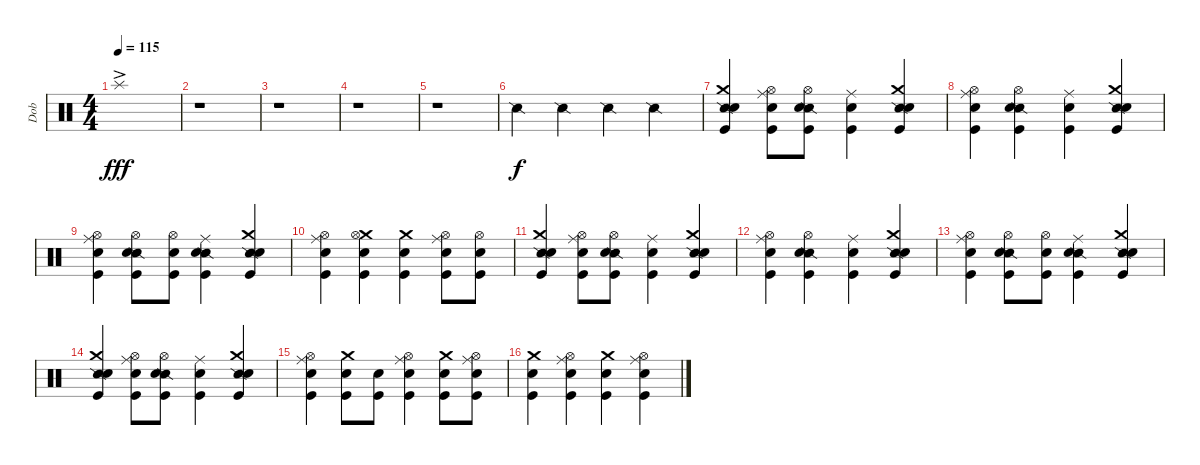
\track ("Dob" "Dob") {instrument percussion}
\staff {score}
\articulation defaults
\ts (4 4)
\tempo 115
\clef neutral
\ks c "Splash (hit)"{ac}.1{dy fff}
|
r.1 |
r.1 |
r.1 |
r.1 |
"Snare (side stick) 2".4{dy f} "Snare (side stick) 2".4 "Snare (side stick) 2".4 "Snare (side stick) 2".4 |
("Crash medium (hit)" "Snare (side stick) 2" "Snare (hit) 2" "Kick (hit)").4 ("Hi-Hat (open)" "Ride (middle)" "Snare (hit) 2" "Kick (hit)").8 ("Hi-Hat (open)" "Snare (side stick) 2" "Snare (hit) 2" "Kick (hit)").8 ("Ride (middle)" "Snare (hit) 2" "Kick (hit)").4 ("Crash medium (hit)" "Snare (side stick) 2" "Snare (hit) 2" "Kick (hit)").4 |
("Hi-Hat (open)" "Ride (middle)" "Snare (hit) 2" "Kick (hit)").4 ("Hi-Hat (open)" "Snare (side stick) 2" "Snare (hit) 2" "Kick (hit)").4 ("Ride (middle)" "Snare (hit) 2" "Kick (hit)").4 ("Crash medium (hit)" "Snare (side stick) 2" "Snare (hit) 2" "Kick (hit)").4 |
("Hi-Hat (open)" "Ride (middle)" "Snare (hit) 2" "Kick (hit)").4 ("Hi-Hat (open)" "Snare (side stick) 2" "Snare (hit) 2" "Kick (hit)").8 ("Hi-Hat (open)" "Snare (hit) 2" "Kick (hit)").8 ("Snare (side stick) 2" "Ride (middle)" "Snare (hit) 2" "Kick (hit)").4 ("Crash medium (hit)" "Snare (side stick) 2" "Snare (hit) 2" "Kick (hit)").4 |
("Hi-Hat (open)" "Ride (middle)" "Snare (hit) 2" "Kick (hit)").4 ("Crash medium (hit)" "Hi-Hat (open)" "Snare (hit) 2" "Kick (hit)").4 ("Crash medium (hit)" "Snare (hit) 2" "Kick (hit)").4 ("Hi-Hat (open)" "Ride (middle)" "Snare (hit) 2" "Kick (hit)").8 ("Hi-Hat (open)" "Snare (hit) 2" "Kick (hit)").8 |
("Crash medium (hit)" "Snare (side stick) 2" "Snare (hit) 2" "Kick (hit)").4 ("Hi-Hat (open)" "Ride (middle)" "Snare (hit) 2" "Kick (hit)").8 ("Hi-Hat (open)" "Snare (side stick) 2" "Snare (hit) 2" "Kick (hit)").8 ("Ride (middle)" "Snare (hit) 2" "Kick (hit)").4 ("Crash medium (hit)" "Snare (side stick) 2" "Snare (hit) 2" "Kick (hit)").4 |
("Hi-Hat (open)" "Ride (middle)" "Snare (hit) 2" "Kick (hit)").4 ("Hi-Hat (open)" "Snare (side stick) 2" "Snare (hit) 2" "Kick (hit)").4 ("Ride (middle)" "Snare (hit) 2" "Kick (hit)").4 ("Crash medium (hit)" "Snare (side stick) 2" "Snare (hit) 2" "Kick (hit)").4 |
("Hi-Hat (open)" "Ride (middle)" "Snare (hit) 2" "Kick (hit)").4 ("Hi-Hat (open)" "Snare (side stick) 2" "Snare (hit) 2" "Kick (hit)").8 ("Hi-Hat (open)" "Snare (hit) 2" "Kick (hit)").8 ("Snare (side stick) 2" "Ride (middle)" "Snare (hit) 2" "Kick (hit)").4 ("Crash medium (hit)" "Snare (side stick) 2" "Snare (hit) 2" "Kick (hit)").4 |
("Crash medium (hit)" "Snare (side stick) 2" "Snare (hit) 2" "Kick (hit)").4 ("Hi-Hat (open)" "Ride (middle)" "Snare (hit) 2" "Kick (hit)").8 ("Hi-Hat (open)" "Snare (side stick) 2" "Snare (hit) 2" "Kick (hit)").8 ("Ride (middle)" "Snare (hit) 2" "Kick (hit)").4 ("Crash medium (hit)" "Snare (side stick) 2" "Snare (hit) 2" "Kick (hit)").4 |
("Hi-Hat (open)" "Ride (middle)" "Snare (hit) 2" "Kick (hit)").4 ("Crash medium (hit)" "Snare (hit) 2" "Kick (hit)").8 ("Snare (hit) 2" "Kick (hit)").8 ("Hi-Hat (open)" "Ride (middle)" "Snare (hit) 2" "Kick (hit)").4 ("Crash medium (hit)" "Snare (hit) 2" "Kick (hit)").8 ("Hi-Hat (open)" "Ride (middle)" "Snare (hit) 2" "Kick (hit)").8 |
("Crash medium (hit)" "Snare (hit) 2" "Kick (hit)").4 ("Hi-Hat (open)" "Ride (middle)" "Snare (hit) 2" "Kick (hit)").4 ("Crash medium (hit)" "Snare (hit) 2" "Kick (hit)").4 ("Hi-Hat (open)" "Ride (middle)" "Snare (hit) 2" "Kick (hit)").4
